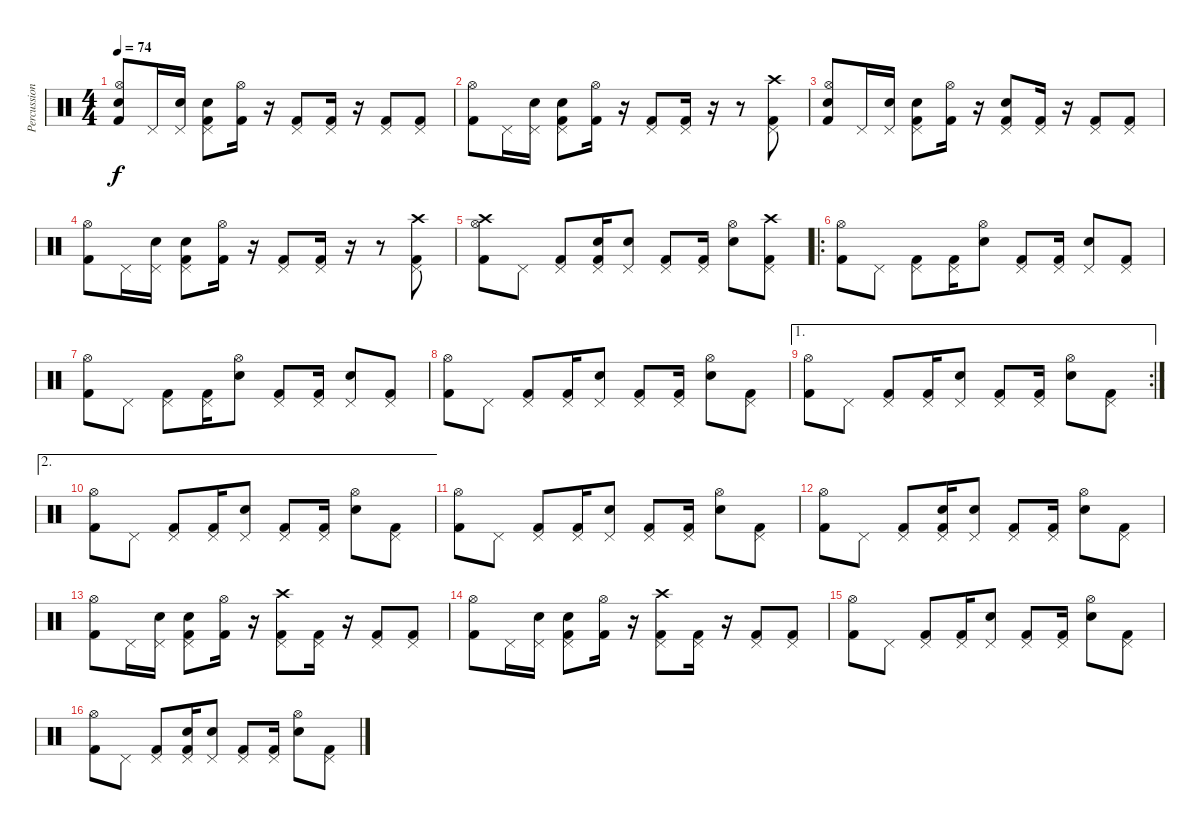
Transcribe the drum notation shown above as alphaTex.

\track ("Percussion" "Percussion") {instrument percussion}
\staff {score}
\articulation defaults
\ts (4 4)
\tempo 74
\clef neutral
\ks c
("Snare (hit) 2" "Hi-Hat (open)" "Kick (hit) 2").8{dy f} "Pedal Hi-Hat (hit)".16 ("Snare (hit) 2" "Pedal Hi-Hat (hit)").16 ("Snare (hit) 2" "Pedal Hi-Hat (hit)" "Kick (hit) 2").8 ("Hi-Hat (open)" "Kick (hit) 2").16 r.16 ("Pedal Hi-Hat (hit)" "Kick (hit) 2").8 ("Pedal Hi-Hat (hit)" "Kick (hit) 2").16 r.16 ("Pedal Hi-Hat (hit)" "Kick (hit) 2").8 ("Pedal Hi-Hat (hit)" "Kick (hit) 2").8 |
("Hi-Hat (open)" "Kick (hit) 2").8 "Pedal Hi-Hat (hit)".16 ("Snare (hit) 2" "Pedal Hi-Hat (hit)").16 ("Snare (hit) 2" "Pedal Hi-Hat (hit)" "Kick (hit) 2").8 ("Hi-Hat (open)" "Kick (hit) 2").16 r.16 ("Pedal Hi-Hat (hit)" "Kick (hit) 2").8 ("Pedal Hi-Hat (hit)" "Kick (hit) 2").16 r.16 r.8 ("Crash high (hit)" "Pedal Hi-Hat (hit)" "Kick (hit) 2").8 |
("Snare (hit) 2" "Hi-Hat (open)" "Kick (hit) 2").8 "Pedal Hi-Hat (hit)".16 ("Snare (hit) 2" "Pedal Hi-Hat (hit)").16 ("Snare (hit) 2" "Pedal Hi-Hat (hit)" "Kick (hit) 2").8 ("Hi-Hat (open)" "Kick (hit) 2").16 r.16 ("Snare (hit) 2" "Pedal Hi-Hat (hit)" "Kick (hit) 2").8 ("Pedal Hi-Hat (hit)" "Kick (hit) 2").16 r.16 ("Pedal Hi-Hat (hit)" "Kick (hit) 2").8 ("Pedal Hi-Hat (hit)" "Kick (hit) 2").8 |
("Hi-Hat (open)" "Kick (hit) 2").8 "Pedal Hi-Hat (hit)".16 ("Snare (hit) 2" "Pedal Hi-Hat (hit)").16 ("Snare (hit) 2" "Pedal Hi-Hat (hit)" "Kick (hit) 2").8 ("Hi-Hat (open)" "Kick (hit) 2").16 r.16 ("Pedal Hi-Hat (hit)" "Kick (hit) 2").8 ("Pedal Hi-Hat (hit)" "Kick (hit) 2").16 r.16 r.8 ("Crash high (hit)" "Pedal Hi-Hat (hit)" "Kick (hit) 2").8 |
("Crash high (hit)" "Hi-Hat (open)" "Kick (hit) 2").8 "Pedal Hi-Hat (hit)".8 ("Pedal Hi-Hat (hit)" "Kick (hit) 2").8 ("Snare (hit) 2" "Pedal Hi-Hat (hit)" "Kick (hit) 2").16 ("Snare (hit) 2" "Pedal Hi-Hat (hit)").8 ("Pedal Hi-Hat (hit)" "Kick (hit) 2").8 ("Pedal Hi-Hat (hit)" "Kick (hit) 2").16 ("Snare (hit) 2" "Hi-Hat (open)").8 ("Crash high (hit)" "Pedal Hi-Hat (hit)" "Kick (hit) 2").8 |
\ro
("Hi-Hat (open)" "Kick (hit) 2").8 "Pedal Hi-Hat (hit)".8 ("Pedal Hi-Hat (hit)" "Kick (hit) 2").8 ("Pedal Hi-Hat (hit)" "Kick (hit) 2").16 ("Snare (hit) 2" "Hi-Hat (open)").8 ("Pedal Hi-Hat (hit)" "Kick (hit) 2").8 ("Pedal Hi-Hat (hit)" "Kick (hit) 2").16 ("Snare (hit) 2" "Pedal Hi-Hat (hit)").8 ("Pedal Hi-Hat (hit)" "Kick (hit) 2").8 |
("Hi-Hat (open)" "Kick (hit) 2").8 "Pedal Hi-Hat (hit)".8 ("Pedal Hi-Hat (hit)" "Kick (hit) 2").8 ("Pedal Hi-Hat (hit)" "Kick (hit) 2").16 ("Snare (hit) 2" "Hi-Hat (open)").8 ("Pedal Hi-Hat (hit)" "Kick (hit) 2").8 ("Pedal Hi-Hat (hit)" "Kick (hit) 2").16 ("Snare (hit) 2" "Pedal Hi-Hat (hit)").8 ("Pedal Hi-Hat (hit)" "Kick (hit) 2").8 |
("Hi-Hat (open)" "Kick (hit) 2").8 "Pedal Hi-Hat (hit)".8 ("Pedal Hi-Hat (hit)" "Kick (hit) 2").8 ("Pedal Hi-Hat (hit)" "Kick (hit) 2").16 ("Snare (hit) 2" "Pedal Hi-Hat (hit)").8 ("Pedal Hi-Hat (hit)" "Kick (hit) 2").8 ("Pedal Hi-Hat (hit)" "Kick (hit) 2").16 ("Snare (hit) 2" "Hi-Hat (open)").8 ("Pedal Hi-Hat (hit)" "Kick (hit) 2").8 |
\ae 1
\rc 2
("Hi-Hat (open)" "Kick (hit) 2").8 "Pedal Hi-Hat (hit)".8 ("Pedal Hi-Hat (hit)" "Kick (hit) 2").8 ("Pedal Hi-Hat (hit)" "Kick (hit) 2").16 ("Snare (hit) 2" "Pedal Hi-Hat (hit)").8 ("Pedal Hi-Hat (hit)" "Kick (hit) 2").8 ("Pedal Hi-Hat (hit)" "Kick (hit) 2").16 ("Snare (hit) 2" "Hi-Hat (open)").8 ("Pedal Hi-Hat (hit)" "Kick (hit) 2").8 |
\ae 2
("Hi-Hat (open)" "Kick (hit) 2").8 "Pedal Hi-Hat (hit)".8 ("Pedal Hi-Hat (hit)" "Kick (hit) 2").8 ("Pedal Hi-Hat (hit)" "Kick (hit) 2").16 ("Snare (hit) 2" "Pedal Hi-Hat (hit)").8 ("Pedal Hi-Hat (hit)" "Kick (hit) 2").8 ("Pedal Hi-Hat (hit)" "Kick (hit) 2").16 ("Snare (hit) 2" "Hi-Hat (open)").8 ("Pedal Hi-Hat (hit)" "Kick (hit) 2").8 |
("Hi-Hat (open)" "Kick (hit) 2").8 "Pedal Hi-Hat (hit)".8 ("Pedal Hi-Hat (hit)" "Kick (hit) 2").8 ("Pedal Hi-Hat (hit)" "Kick (hit) 2").16 ("Snare (hit) 2" "Pedal Hi-Hat (hit)").8 ("Pedal Hi-Hat (hit)" "Kick (hit) 2").8 ("Pedal Hi-Hat (hit)" "Kick (hit) 2").16 ("Snare (hit) 2" "Hi-Hat (open)").8 ("Pedal Hi-Hat (hit)" "Kick (hit) 2").8 |
("Hi-Hat (open)" "Kick (hit) 2").8 "Pedal Hi-Hat (hit)".8 ("Pedal Hi-Hat (hit)" "Kick (hit) 2").8 ("Snare (hit) 2" "Pedal Hi-Hat (hit)" "Kick (hit) 2").16 ("Snare (hit) 2" "Pedal Hi-Hat (hit)").8 ("Pedal Hi-Hat (hit)" "Kick (hit) 2").8 ("Pedal Hi-Hat (hit)" "Kick (hit) 2").16 ("Snare (hit) 2" "Hi-Hat (open)").8 ("Pedal Hi-Hat (hit)" "Kick (hit) 2").8 |
("Hi-Hat (open)" "Kick (hit) 2").8 "Pedal Hi-Hat (hit)".16 ("Snare (hit) 2" "Pedal Hi-Hat (hit)").16 ("Snare (hit) 2" "Pedal Hi-Hat (hit)" "Kick (hit) 2").8 ("Hi-Hat (open)" "Kick (hit) 2").16 r.16 ("Crash high (hit)" "Pedal Hi-Hat (hit)" "Kick (hit) 2").8 ("Pedal Hi-Hat (hit)" "Kick (hit) 2").16 r.16 ("Pedal Hi-Hat (hit)" "Kick (hit) 2").8 ("Pedal Hi-Hat (hit)" "Kick (hit) 2").8 |
("Hi-Hat (open)" "Kick (hit) 2").8 "Pedal Hi-Hat (hit)".16 ("Snare (hit) 2" "Pedal Hi-Hat (hit)").16 ("Snare (hit) 2" "Pedal Hi-Hat (hit)" "Kick (hit) 2").8 ("Hi-Hat (open)" "Kick (hit) 2").16 r.16 ("Crash high (hit)" "Pedal Hi-Hat (hit)" "Kick (hit) 2").8 ("Pedal Hi-Hat (hit)" "Kick (hit) 2").16 r.16 ("Pedal Hi-Hat (hit)" "Kick (hit) 2").8 ("Pedal Hi-Hat (hit)" "Kick (hit) 2").8 |
("Hi-Hat (open)" "Kick (hit) 2").8 "Pedal Hi-Hat (hit)".8 ("Pedal Hi-Hat (hit)" "Kick (hit) 2").8 ("Pedal Hi-Hat (hit)" "Kick (hit) 2").16 ("Snare (hit) 2" "Pedal Hi-Hat (hit)").8 ("Pedal Hi-Hat (hit)" "Kick (hit) 2").8 ("Pedal Hi-Hat (hit)" "Kick (hit) 2").16 ("Snare (hit) 2" "Hi-Hat (open)").8 ("Pedal Hi-Hat (hit)" "Kick (hit) 2").8 |
("Hi-Hat (open)" "Kick (hit) 2").8 "Pedal Hi-Hat (hit)".8 ("Pedal Hi-Hat (hit)" "Kick (hit) 2").8 ("Snare (hit) 2" "Pedal Hi-Hat (hit)" "Kick (hit) 2").16 ("Snare (hit) 2" "Pedal Hi-Hat (hit)").8 ("Pedal Hi-Hat (hit)" "Kick (hit) 2").8 ("Pedal Hi-Hat (hit)" "Kick (hit) 2").16 ("Snare (hit) 2" "Hi-Hat (open)").8 ("Pedal Hi-Hat (hit)" "Kick (hit) 2").8
